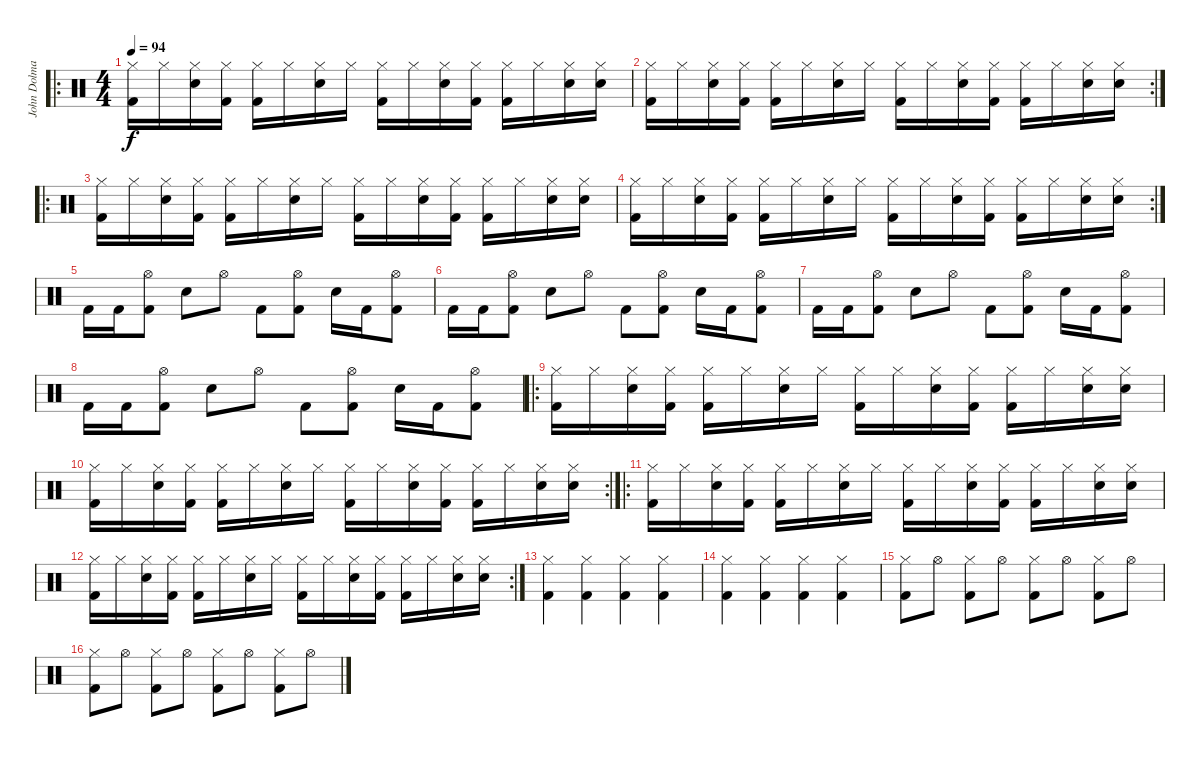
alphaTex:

\track ("John Dolmayan" "John Dolma") {instrument percussion}
\staff {score}
\articulation defaults
\ro
\ts (4 4)
\tempo 94
\clef neutral
\ks c
("Kick (hit) 2" "Hi-Hat (closed)").16{dy f} "Hi-Hat (closed)".16 ("Snare (hit) 2" "Hi-Hat (closed)").16 ("Kick (hit) 2" "Hi-Hat (closed)").16 ("Kick (hit) 2" "Hi-Hat (closed)").16 "Hi-Hat (closed)".16 ("Snare (hit) 2" "Hi-Hat (closed)").16 "Hi-Hat (closed)".16 ("Kick (hit) 2" "Hi-Hat (closed)").16 "Hi-Hat (closed)".16 ("Snare (hit) 2" "Hi-Hat (closed)").16 ("Kick (hit) 2" "Hi-Hat (closed)").16 ("Kick (hit) 2" "Hi-Hat (closed)").16 "Hi-Hat (closed)".16 ("Snare (hit) 2" "Hi-Hat (closed)").16 ("Snare (hit) 2" "Hi-Hat (closed)").16 |
\rc 2
("Kick (hit) 2" "Hi-Hat (closed)").16 "Hi-Hat (closed)".16 ("Snare (hit) 2" "Hi-Hat (closed)").16 ("Kick (hit) 2" "Hi-Hat (closed)").16 ("Kick (hit) 2" "Hi-Hat (closed)").16 "Hi-Hat (closed)".16 ("Snare (hit) 2" "Hi-Hat (closed)").16 "Hi-Hat (closed)".16 ("Kick (hit) 2" "Hi-Hat (closed)").16 "Hi-Hat (closed)".16 ("Snare (hit) 2" "Hi-Hat (closed)").16 ("Kick (hit) 2" "Hi-Hat (closed)").16 ("Kick (hit) 2" "Hi-Hat (closed)").16 "Hi-Hat (closed)".16 ("Snare (hit) 2" "Hi-Hat (closed)").16 ("Snare (hit) 2" "Hi-Hat (closed)").16 |
\ro
("Kick (hit) 2" "Hi-Hat (closed)").16 "Hi-Hat (closed)".16 ("Snare (hit) 2" "Hi-Hat (closed)").16 ("Kick (hit) 2" "Hi-Hat (closed)").16 ("Kick (hit) 2" "Hi-Hat (closed)").16 "Hi-Hat (closed)".16 ("Snare (hit) 2" "Hi-Hat (closed)").16 "Hi-Hat (closed)".16 ("Kick (hit) 2" "Hi-Hat (closed)").16 "Hi-Hat (closed)".16 ("Snare (hit) 2" "Hi-Hat (closed)").16 ("Kick (hit) 2" "Hi-Hat (closed)").16 ("Kick (hit) 2" "Hi-Hat (closed)").16 "Hi-Hat (closed)".16 ("Snare (hit) 2" "Hi-Hat (closed)").16 ("Snare (hit) 2" "Hi-Hat (closed)").16 |
\rc 2
("Kick (hit) 2" "Hi-Hat (closed)").16 "Hi-Hat (closed)".16 ("Snare (hit) 2" "Hi-Hat (closed)").16 ("Kick (hit) 2" "Hi-Hat (closed)").16 ("Kick (hit) 2" "Hi-Hat (closed)").16 "Hi-Hat (closed)".16 ("Snare (hit) 2" "Hi-Hat (closed)").16 "Hi-Hat (closed)".16 ("Kick (hit) 2" "Hi-Hat (closed)").16 "Hi-Hat (closed)".16 ("Snare (hit) 2" "Hi-Hat (closed)").16 ("Kick (hit) 2" "Hi-Hat (closed)").16 ("Kick (hit) 2" "Hi-Hat (closed)").16 "Hi-Hat (closed)".16 ("Snare (hit) 2" "Hi-Hat (closed)").16 ("Snare (hit) 2" "Hi-Hat (closed)").16 |
"Kick (hit) 2".16 "Kick (hit) 2".16 ("Kick (hit) 2" "Hi-Hat (open)").8 "Snare (hit) 2".8 "Hi-Hat (open)".8 "Kick (hit) 2".8 ("Kick (hit) 2" "Hi-Hat (open)").8 "Snare (hit) 2".16 "Kick (hit) 2".16 ("Kick (hit) 2" "Hi-Hat (open)").8 |
"Kick (hit) 2".16 "Kick (hit) 2".16 ("Kick (hit) 2" "Hi-Hat (open)").8 "Snare (hit) 2".8 "Hi-Hat (open)".8 "Kick (hit) 2".8 ("Kick (hit) 2" "Hi-Hat (open)").8 "Snare (hit) 2".16 "Kick (hit) 2".16 ("Kick (hit) 2" "Hi-Hat (open)").8 |
"Kick (hit) 2".16 "Kick (hit) 2".16 ("Kick (hit) 2" "Hi-Hat (open)").8 "Snare (hit) 2".8 "Hi-Hat (open)".8 "Kick (hit) 2".8 ("Kick (hit) 2" "Hi-Hat (open)").8 "Snare (hit) 2".16 "Kick (hit) 2".16 ("Kick (hit) 2" "Hi-Hat (open)").8 |
"Kick (hit) 2".16 "Kick (hit) 2".16 ("Kick (hit) 2" "Hi-Hat (open)").8 "Snare (hit) 2".8 "Hi-Hat (open)".8 "Kick (hit) 2".8 ("Kick (hit) 2" "Hi-Hat (open)").8 "Snare (hit) 2".16 "Kick (hit) 2".16 ("Kick (hit) 2" "Hi-Hat (open)").8 |
\ro
("Kick (hit) 2" "Hi-Hat (closed)").16 "Hi-Hat (closed)".16 ("Snare (hit) 2" "Hi-Hat (closed)").16 ("Kick (hit) 2" "Hi-Hat (closed)").16 ("Kick (hit) 2" "Hi-Hat (closed)").16 "Hi-Hat (closed)".16 ("Snare (hit) 2" "Hi-Hat (closed)").16 "Hi-Hat (closed)".16 ("Kick (hit) 2" "Hi-Hat (closed)").16 "Hi-Hat (closed)".16 ("Snare (hit) 2" "Hi-Hat (closed)").16 ("Kick (hit) 2" "Hi-Hat (closed)").16 ("Kick (hit) 2" "Hi-Hat (closed)").16 "Hi-Hat (closed)".16 ("Snare (hit) 2" "Hi-Hat (closed)").16 ("Snare (hit) 2" "Hi-Hat (closed)").16 |
\rc 2
("Kick (hit) 2" "Hi-Hat (closed)").16 "Hi-Hat (closed)".16 ("Snare (hit) 2" "Hi-Hat (closed)").16 ("Kick (hit) 2" "Hi-Hat (closed)").16 ("Kick (hit) 2" "Hi-Hat (closed)").16 "Hi-Hat (closed)".16 ("Snare (hit) 2" "Hi-Hat (closed)").16 "Hi-Hat (closed)".16 ("Kick (hit) 2" "Hi-Hat (closed)").16 "Hi-Hat (closed)".16 ("Snare (hit) 2" "Hi-Hat (closed)").16 ("Kick (hit) 2" "Hi-Hat (closed)").16 ("Kick (hit) 2" "Hi-Hat (closed)").16 "Hi-Hat (closed)".16 ("Snare (hit) 2" "Hi-Hat (closed)").16 ("Snare (hit) 2" "Hi-Hat (closed)").16 |
\ro
("Kick (hit) 2" "Hi-Hat (closed)").16 "Hi-Hat (closed)".16 ("Snare (hit) 2" "Hi-Hat (closed)").16 ("Kick (hit) 2" "Hi-Hat (closed)").16 ("Kick (hit) 2" "Hi-Hat (closed)").16 "Hi-Hat (closed)".16 ("Snare (hit) 2" "Hi-Hat (closed)").16 "Hi-Hat (closed)".16 ("Kick (hit) 2" "Hi-Hat (closed)").16 "Hi-Hat (closed)".16 ("Snare (hit) 2" "Hi-Hat (closed)").16 ("Kick (hit) 2" "Hi-Hat (closed)").16 ("Kick (hit) 2" "Hi-Hat (closed)").16 "Hi-Hat (closed)".16 ("Snare (hit) 2" "Hi-Hat (closed)").16 ("Snare (hit) 2" "Hi-Hat (closed)").16 |
\rc 2
("Kick (hit) 2" "Hi-Hat (closed)").16 "Hi-Hat (closed)".16 ("Snare (hit) 2" "Hi-Hat (closed)").16 ("Kick (hit) 2" "Hi-Hat (closed)").16 ("Kick (hit) 2" "Hi-Hat (closed)").16 "Hi-Hat (closed)".16 ("Snare (hit) 2" "Hi-Hat (closed)").16 "Hi-Hat (closed)".16 ("Kick (hit) 2" "Hi-Hat (closed)").16 "Hi-Hat (closed)".16 ("Snare (hit) 2" "Hi-Hat (closed)").16 ("Kick (hit) 2" "Hi-Hat (closed)").16 ("Kick (hit) 2" "Hi-Hat (closed)").16 "Hi-Hat (closed)".16 ("Snare (hit) 2" "Hi-Hat (closed)").16 ("Snare (hit) 2" "Hi-Hat (closed)").16 |
("Kick (hit) 2" "Hi-Hat (closed)").4 ("Kick (hit) 2" "Hi-Hat (closed)").4 ("Kick (hit) 2" "Hi-Hat (closed)").4 ("Kick (hit) 2" "Hi-Hat (closed)").4 |
("Kick (hit) 2" "Hi-Hat (closed)").4 ("Kick (hit) 2" "Hi-Hat (closed)").4 ("Kick (hit) 2" "Hi-Hat (closed)").4 ("Kick (hit) 2" "Hi-Hat (closed)").4 |
("Kick (hit) 2" "Hi-Hat (closed)").8 "Hi-Hat (open)".8 ("Kick (hit) 2" "Hi-Hat (closed)").8 "Hi-Hat (open)".8 ("Kick (hit) 2" "Hi-Hat (closed)").8 "Hi-Hat (open)".8 ("Kick (hit) 2" "Hi-Hat (closed)").8 "Hi-Hat (open)".8 |
("Kick (hit) 2" "Hi-Hat (closed)").8 "Hi-Hat (open)".8 ("Kick (hit) 2" "Hi-Hat (closed)").8 "Hi-Hat (open)".8 ("Kick (hit) 2" "Hi-Hat (closed)").8 "Hi-Hat (open)".8 ("Kick (hit) 2" "Hi-Hat (closed)").8 "Hi-Hat (open)".8
